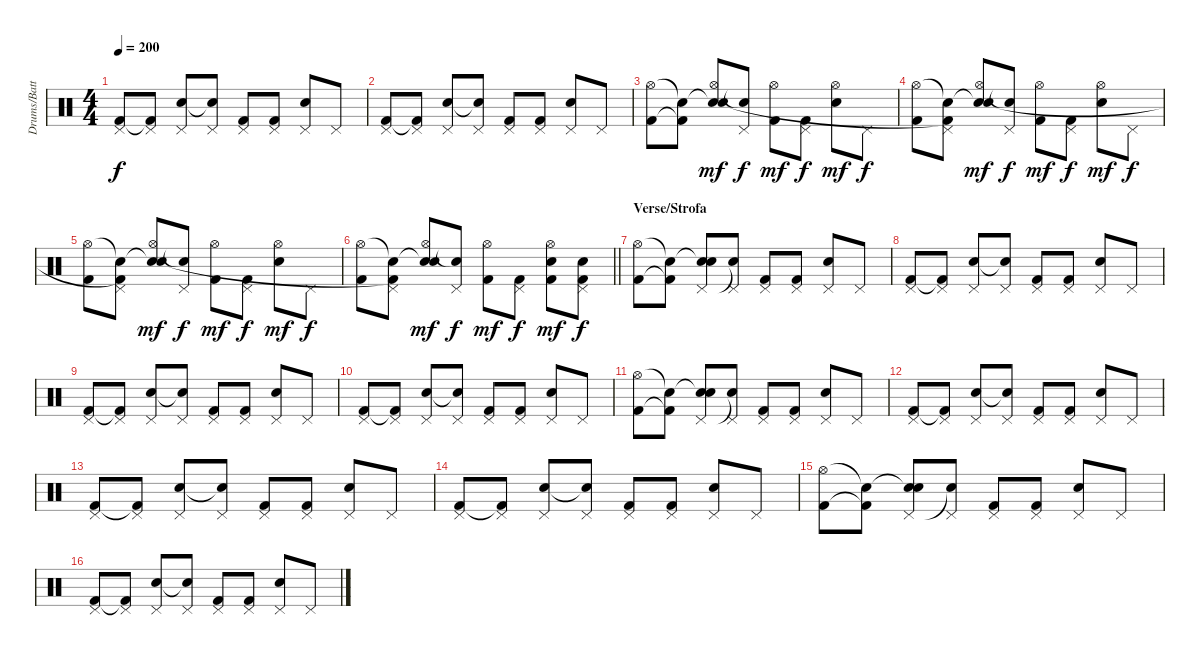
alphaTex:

\track ("Drums/Batteria" "Drums/Batt") {instrument percussion}
\staff {score}
\articulation defaults
\ts (4 4)
\tempo 200
\clef neutral
\ks c
("Pedal Hi-Hat (hit)" "Kick (hit) 2").8{dy f} ("Pedal Hi-Hat (hit)" "Kick (hit) 2"{t}).8 ("Pedal Hi-Hat (hit)" "Electric Snare (hit)").8 ("Pedal Hi-Hat (hit)" "Electric Snare (hit)"{t}).8 ("Pedal Hi-Hat (hit)" "Kick (hit) 2").8 ("Pedal Hi-Hat (hit)" "Kick (hit) 2").8 ("Pedal Hi-Hat (hit)" "Electric Snare (hit)").8 "Pedal Hi-Hat (hit)".8 |
("Pedal Hi-Hat (hit)" "Kick (hit) 2").8 ("Pedal Hi-Hat (hit)" "Kick (hit) 2"{t}).8 ("Pedal Hi-Hat (hit)" "Electric Snare (hit)").8 ("Pedal Hi-Hat (hit)" "Electric Snare (hit)"{t}).8 ("Pedal Hi-Hat (hit)" "Kick (hit) 2").8 ("Pedal Hi-Hat (hit)" "Kick (hit) 2").8 ("Pedal Hi-Hat (hit)" "Electric Snare (hit)").8 "Pedal Hi-Hat (hit)".8 |
("Hi-Hat (open)" "Kick (hit) 2").8 ("Snare (hit)"{t} "Kick (hit) 2"{t}).8 ("Snare (hit)"{t} "Hi-Hat (open)" "Electric Snare (hit)").8{dy mf} ("Pedal Hi-Hat (hit)" "Snare (hit)"{t}).8{dy f} ("Hi-Hat (open)" "Kick (hit) 2").8{dy mf} ("Pedal Hi-Hat (hit)" "Kick (hit) 2").8{dy f} ("Hi-Hat (open)" "Electric Snare (hit)").8{dy mf} "Pedal Hi-Hat (hit)".8{dy f} |
("Hi-Hat (open)" "Kick (hit) 2").8 ("Snare (hit)"{t} "Pedal Hi-Hat (hit)" "Kick (hit) 2"{t}).8 ("Snare (hit)"{t} "Hi-Hat (open)" "Electric Snare (hit)").8{dy mf} ("Pedal Hi-Hat (hit)" "Snare (hit)"{t}).8{dy f} ("Hi-Hat (open)" "Kick (hit) 2").8{dy mf} ("Pedal Hi-Hat (hit)" "Kick (hit) 2").8{dy f} ("Hi-Hat (open)" "Electric Snare (hit)").8{dy mf} "Pedal Hi-Hat (hit)".8{dy f} |
("Hi-Hat (open)" "Kick (hit) 2").8 ("Snare (hit)"{t} "Pedal Hi-Hat (hit)" "Kick (hit) 2"{t}).8 ("Snare (hit)"{t} "Hi-Hat (open)" "Electric Snare (hit)").8{dy mf} ("Pedal Hi-Hat (hit)" "Snare (hit)"{t}).8{dy f} ("Hi-Hat (open)" "Kick (hit) 2").8{dy mf} ("Pedal Hi-Hat (hit)" "Kick (hit) 2").8{dy f} ("Hi-Hat (open)" "Electric Snare (hit)").8{dy mf} "Pedal Hi-Hat (hit)".8{dy f} |
\barLineRight lightlight
("Hi-Hat (open)" "Kick (hit) 2").8 ("Snare (hit)"{t} "Pedal Hi-Hat (hit)" "Kick (hit) 2"{t}).8 ("Snare (hit)"{t} "Hi-Hat (open)" "Electric Snare (hit)").8{dy mf} ("Pedal Hi-Hat (hit)" "Snare (hit)"{t}).8{dy f} ("Hi-Hat (open)" "Kick (hit) 2").8{dy mf} ("Pedal Hi-Hat (hit)" "Kick (hit) 2").8{dy f} ("Hi-Hat (open)" "Electric Snare (hit)" "Kick (hit) 2").8{dy mf} ("Pedal Hi-Hat (hit)" "Electric Snare (hit)" "Kick (hit) 2").8{dy f} |
\section ("" "Verse/Strofa")
("Hi-Hat (open)" "Kick (hit) 2").8 ("Snare (hit)"{t} "Kick (hit) 2"{t}).8 ("Snare (hit)"{t} "Pedal Hi-Hat (hit)" "Electric Snare (hit)").8 ("Pedal Hi-Hat (hit)" "Snare (hit)"{t}).8 ("Pedal Hi-Hat (hit)" "Kick (hit) 2").8 ("Pedal Hi-Hat (hit)" "Kick (hit) 2").8 ("Pedal Hi-Hat (hit)" "Electric Snare (hit)").8 "Pedal Hi-Hat (hit)".8 |
("Pedal Hi-Hat (hit)" "Kick (hit) 2").8 ("Pedal Hi-Hat (hit)" "Kick (hit) 2"{t}).8 ("Pedal Hi-Hat (hit)" "Electric Snare (hit)").8 ("Pedal Hi-Hat (hit)" "Electric Snare (hit)"{t}).8 ("Pedal Hi-Hat (hit)" "Kick (hit) 2").8 ("Pedal Hi-Hat (hit)" "Kick (hit) 2").8 ("Pedal Hi-Hat (hit)" "Electric Snare (hit)").8 "Pedal Hi-Hat (hit)".8 |
("Pedal Hi-Hat (hit)" "Kick (hit) 2").8 ("Pedal Hi-Hat (hit)" "Kick (hit) 2"{t}).8 ("Pedal Hi-Hat (hit)" "Electric Snare (hit)").8 ("Pedal Hi-Hat (hit)" "Electric Snare (hit)"{t}).8 ("Pedal Hi-Hat (hit)" "Kick (hit) 2").8 ("Pedal Hi-Hat (hit)" "Kick (hit) 2").8 ("Pedal Hi-Hat (hit)" "Electric Snare (hit)").8 "Pedal Hi-Hat (hit)".8 |
("Pedal Hi-Hat (hit)" "Kick (hit) 2").8 ("Pedal Hi-Hat (hit)" "Kick (hit) 2"{t}).8 ("Pedal Hi-Hat (hit)" "Electric Snare (hit)").8 ("Pedal Hi-Hat (hit)" "Electric Snare (hit)"{t}).8 ("Pedal Hi-Hat (hit)" "Kick (hit) 2").8 ("Pedal Hi-Hat (hit)" "Kick (hit) 2").8 ("Pedal Hi-Hat (hit)" "Electric Snare (hit)").8 "Pedal Hi-Hat (hit)".8 |
("Hi-Hat (open)" "Kick (hit) 2").8 ("Snare (hit)"{t} "Kick (hit) 2"{t}).8 ("Snare (hit)"{t} "Pedal Hi-Hat (hit)" "Electric Snare (hit)").8 ("Pedal Hi-Hat (hit)" "Snare (hit)"{t}).8 ("Pedal Hi-Hat (hit)" "Kick (hit) 2").8 ("Pedal Hi-Hat (hit)" "Kick (hit) 2").8 ("Pedal Hi-Hat (hit)" "Electric Snare (hit)").8 "Pedal Hi-Hat (hit)".8 |
("Pedal Hi-Hat (hit)" "Kick (hit) 2").8 ("Pedal Hi-Hat (hit)" "Kick (hit) 2"{t}).8 ("Pedal Hi-Hat (hit)" "Electric Snare (hit)").8 ("Pedal Hi-Hat (hit)" "Electric Snare (hit)"{t}).8 ("Pedal Hi-Hat (hit)" "Kick (hit) 2").8 ("Pedal Hi-Hat (hit)" "Kick (hit) 2").8 ("Pedal Hi-Hat (hit)" "Electric Snare (hit)").8 "Pedal Hi-Hat (hit)".8 |
("Pedal Hi-Hat (hit)" "Kick (hit) 2").8 ("Pedal Hi-Hat (hit)" "Kick (hit) 2"{t}).8 ("Pedal Hi-Hat (hit)" "Electric Snare (hit)").8 ("Pedal Hi-Hat (hit)" "Electric Snare (hit)"{t}).8 ("Pedal Hi-Hat (hit)" "Kick (hit) 2").8 ("Pedal Hi-Hat (hit)" "Kick (hit) 2").8 ("Pedal Hi-Hat (hit)" "Electric Snare (hit)").8 "Pedal Hi-Hat (hit)".8 |
("Pedal Hi-Hat (hit)" "Kick (hit) 2").8 ("Pedal Hi-Hat (hit)" "Kick (hit) 2"{t}).8 ("Pedal Hi-Hat (hit)" "Electric Snare (hit)").8 ("Pedal Hi-Hat (hit)" "Electric Snare (hit)"{t}).8 ("Pedal Hi-Hat (hit)" "Kick (hit) 2").8 ("Pedal Hi-Hat (hit)" "Kick (hit) 2").8 ("Pedal Hi-Hat (hit)" "Electric Snare (hit)").8 "Pedal Hi-Hat (hit)".8 |
("Hi-Hat (open)" "Kick (hit) 2").8 ("Snare (hit)"{t} "Kick (hit) 2"{t}).8 ("Snare (hit)"{t} "Pedal Hi-Hat (hit)" "Electric Snare (hit)").8 ("Pedal Hi-Hat (hit)" "Snare (hit)"{t}).8 ("Pedal Hi-Hat (hit)" "Kick (hit) 2").8 ("Pedal Hi-Hat (hit)" "Kick (hit) 2").8 ("Pedal Hi-Hat (hit)" "Electric Snare (hit)").8 "Pedal Hi-Hat (hit)".8 |
("Pedal Hi-Hat (hit)" "Kick (hit) 2").8 ("Pedal Hi-Hat (hit)" "Kick (hit) 2"{t}).8 ("Pedal Hi-Hat (hit)" "Electric Snare (hit)").8 ("Pedal Hi-Hat (hit)" "Electric Snare (hit)"{t}).8 ("Pedal Hi-Hat (hit)" "Kick (hit) 2").8 ("Pedal Hi-Hat (hit)" "Kick (hit) 2").8 ("Pedal Hi-Hat (hit)" "Electric Snare (hit)").8 "Pedal Hi-Hat (hit)".8
